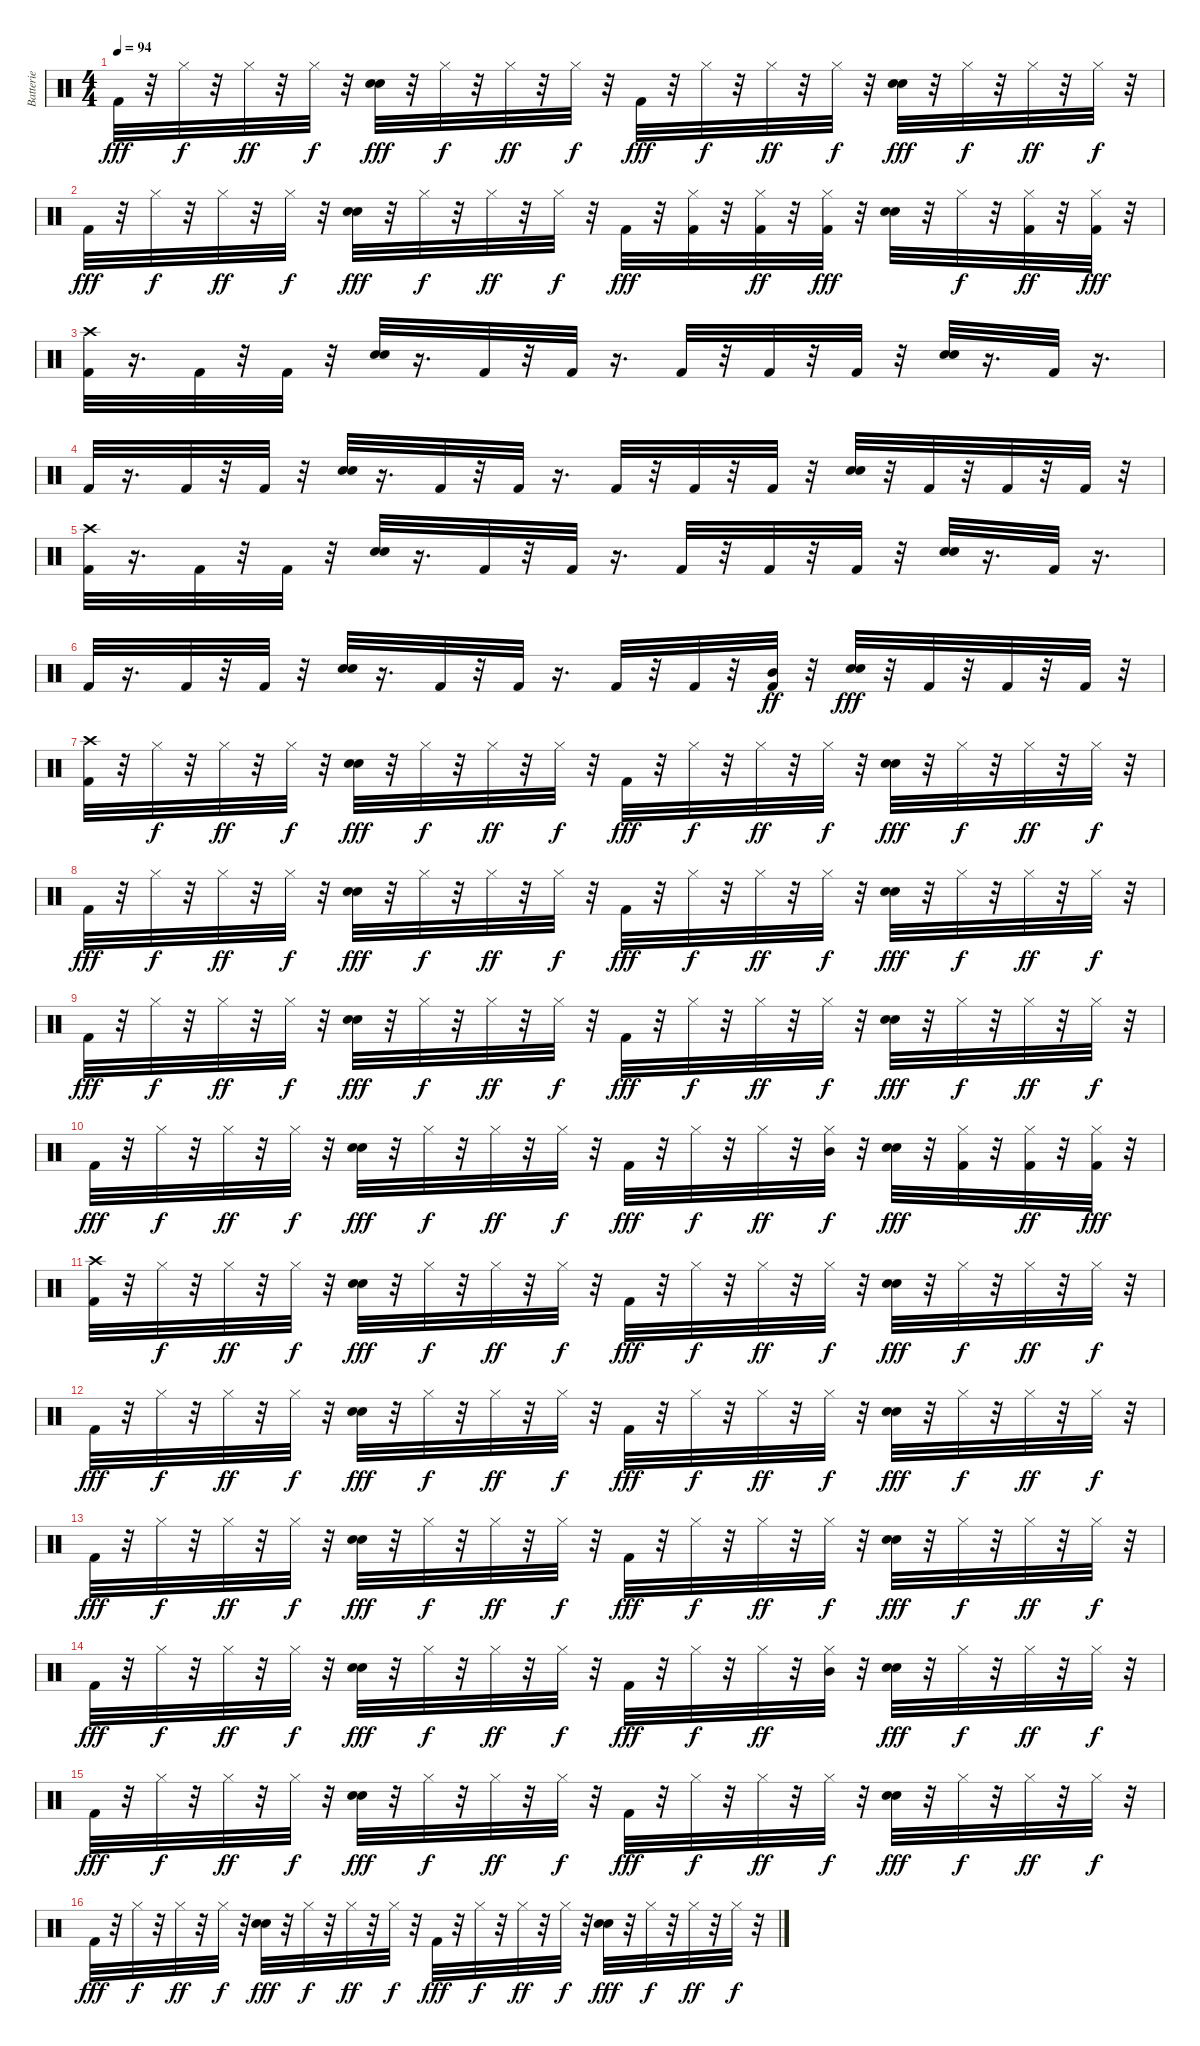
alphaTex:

\track ("Batterie" "Batterie") {instrument percussion}
\staff {score}
\articulation defaults
\ts (4 4)
\tempo 94
\clef neutral
\ks c "Kick (hit) 2".32{dy fff}
r.32 "Hi-Hat (closed)".32{dy f} r.32 "Hi-Hat (closed)".32{dy ff} r.32 "Hi-Hat (closed)".32{dy f} r.32 ("Electric Snare (hit)" "Hand Clap (hit)").32{dy fff} r.32 "Hi-Hat (closed)".32{dy f} r.32 "Hi-Hat (closed)".32{dy ff} r.32 "Hi-Hat (closed)".32{dy f} r.32 "Kick (hit) 2".32{dy fff} r.32 "Hi-Hat (closed)".32{dy f} r.32 "Hi-Hat (closed)".32{dy ff} r.32 "Hi-Hat (closed)".32{dy f} r.32 ("Electric Snare (hit)" "Hand Clap (hit)").32{dy fff} r.32 "Hi-Hat (closed)".32{dy f} r.32 "Hi-Hat (closed)".32{dy ff} r.32 "Hi-Hat (closed)".32{dy f} r.32 |
"Kick (hit) 2".32{dy fff} r.32 "Hi-Hat (closed)".32{dy f} r.32 "Hi-Hat (closed)".32{dy ff} r.32 "Hi-Hat (closed)".32{dy f} r.32 ("Electric Snare (hit)" "Hand Clap (hit)").32{dy fff} r.32 "Hi-Hat (closed)".32{dy f} r.32 "Hi-Hat (closed)".32{dy ff} r.32 "Hi-Hat (closed)".32{dy f} r.32 "Kick (hit) 2".32{dy fff} r.32 ("Kick (hit) 2" "Hi-Hat (closed)").32 r.32 ("Kick (hit) 2" "Hi-Hat (closed)").32{dy ff} r.32 ("Hi-Hat (closed)" "Kick (hit) 2").32{dy fff} r.32 ("Electric Snare (hit)" "Hand Clap (hit)").32 r.32 "Hi-Hat (closed)".32{dy f} r.32 ("Kick (hit) 2" "Hi-Hat (closed)").32{dy ff} r.32 ("Kick (hit) 2" "Hi-Hat (closed)").32{dy fff} r.32 |
("Kick (hit) 2" "Crash high (hit)").32 r.16{d} "Kick (hit) 2".32 r.32 "Kick (hit) 2".32 r.32 ("Electric Snare (hit)" "Hand Clap (hit)").32 r.16{d} "Kick (hit) 2".32 r.32 "Kick (hit) 2".32 r.16{d} "Kick (hit) 2".32 r.32 "Kick (hit) 2".32 r.32 "Kick (hit) 2".32 r.32 ("Electric Snare (hit)" "Hand Clap (hit)").32 r.16{d} "Kick (hit) 2".32 r.16{d} |
"Kick (hit) 2".32 r.16{d} "Kick (hit) 2".32 r.32 "Kick (hit) 2".32 r.32 ("Electric Snare (hit)" "Hand Clap (hit)").32 r.16{d} "Kick (hit) 2".32 r.32 "Kick (hit) 2".32 r.16{d} "Kick (hit) 2".32 r.32 "Kick (hit) 2".32 r.32 "Kick (hit) 2".32 r.32 ("Electric Snare (hit)" "Hand Clap (hit)").32 r.32 "Kick (hit) 2".32 r.32 "Kick (hit) 2".32 r.32 "Kick (hit) 2".32 r.32 |
("Kick (hit) 2" "Crash high (hit)").32 r.16{d} "Kick (hit) 2".32 r.32 "Kick (hit) 2".32 r.32 ("Electric Snare (hit)" "Hand Clap (hit)").32 r.16{d} "Kick (hit) 2".32 r.32 "Kick (hit) 2".32 r.16{d} "Kick (hit) 2".32 r.32 "Kick (hit) 2".32 r.32 "Kick (hit) 2".32 r.32 ("Electric Snare (hit)" "Hand Clap (hit)").32 r.16{d} "Kick (hit) 2".32 r.16{d} |
"Kick (hit) 2".32 r.16{d} "Kick (hit) 2".32 r.32 "Kick (hit) 2".32 r.32 ("Electric Snare (hit)" "Hand Clap (hit)").32 r.16{d} "Kick (hit) 2".32 r.32 "Kick (hit) 2".32 r.16{d} "Kick (hit) 2".32 r.32 "Kick (hit) 2".32 r.32 ("Kick (hit) 2" "Mid Tom (hit)").32{dy ff} r.32 ("Electric Snare (hit)" "Hand Clap (hit)").32{dy fff} r.32 "Kick (hit) 2".32 r.32 "Kick (hit) 2".32 r.32 "Kick (hit) 2".32 r.32 |
("Kick (hit) 2" "Crash high (hit)").32 r.32 "Hi-Hat (closed)".32{dy f} r.32 "Hi-Hat (closed)".32{dy ff} r.32 "Hi-Hat (closed)".32{dy f} r.32 ("Electric Snare (hit)" "Hand Clap (hit)").32{dy fff} r.32 "Hi-Hat (closed)".32{dy f} r.32 "Hi-Hat (closed)".32{dy ff} r.32 "Hi-Hat (closed)".32{dy f} r.32 "Kick (hit) 2".32{dy fff} r.32 "Hi-Hat (closed)".32{dy f} r.32 "Hi-Hat (closed)".32{dy ff} r.32 "Hi-Hat (closed)".32{dy f} r.32 ("Electric Snare (hit)" "Hand Clap (hit)").32{dy fff} r.32 "Hi-Hat (closed)".32{dy f} r.32 "Hi-Hat (closed)".32{dy ff} r.32 "Hi-Hat (closed)".32{dy f} r.32 |
"Kick (hit) 2".32{dy fff} r.32 "Hi-Hat (closed)".32{dy f} r.32 "Hi-Hat (closed)".32{dy ff} r.32 "Hi-Hat (closed)".32{dy f} r.32 ("Electric Snare (hit)" "Hand Clap (hit)").32{dy fff} r.32 "Hi-Hat (closed)".32{dy f} r.32 "Hi-Hat (closed)".32{dy ff} r.32 "Hi-Hat (closed)".32{dy f} r.32 "Kick (hit) 2".32{dy fff} r.32 "Hi-Hat (closed)".32{dy f} r.32 "Hi-Hat (closed)".32{dy ff} r.32 "Hi-Hat (closed)".32{dy f} r.32 ("Electric Snare (hit)" "Hand Clap (hit)").32{dy fff} r.32 "Hi-Hat (closed)".32{dy f} r.32 "Hi-Hat (closed)".32{dy ff} r.32 "Hi-Hat (closed)".32{dy f} r.32 |
"Kick (hit) 2".32{dy fff} r.32 "Hi-Hat (closed)".32{dy f} r.32 "Hi-Hat (closed)".32{dy ff} r.32 "Hi-Hat (closed)".32{dy f} r.32 ("Electric Snare (hit)" "Hand Clap (hit)").32{dy fff} r.32 "Hi-Hat (closed)".32{dy f} r.32 "Hi-Hat (closed)".32{dy ff} r.32 "Hi-Hat (closed)".32{dy f} r.32 "Kick (hit) 2".32{dy fff} r.32 "Hi-Hat (closed)".32{dy f} r.32 "Hi-Hat (closed)".32{dy ff} r.32 "Hi-Hat (closed)".32{dy f} r.32 ("Electric Snare (hit)" "Hand Clap (hit)").32{dy fff} r.32 "Hi-Hat (closed)".32{dy f} r.32 "Hi-Hat (closed)".32{dy ff} r.32 "Hi-Hat (closed)".32{dy f} r.32 |
"Kick (hit) 2".32{dy fff} r.32 "Hi-Hat (closed)".32{dy f} r.32 "Hi-Hat (closed)".32{dy ff} r.32 "Hi-Hat (closed)".32{dy f} r.32 ("Electric Snare (hit)" "Hand Clap (hit)").32{dy fff} r.32 "Hi-Hat (closed)".32{dy f} r.32 "Hi-Hat (closed)".32{dy ff} r.32 "Hi-Hat (closed)".32{dy f} r.32 "Kick (hit) 2".32{dy fff} r.32 "Hi-Hat (closed)".32{dy f} r.32 "Hi-Hat (closed)".32{dy ff} r.32 ("Hi-Hat (closed)" "Mid Tom (hit)").32{dy f} r.32 ("Electric Snare (hit)" "Hand Clap (hit)").32{dy fff} r.32 ("Kick (hit) 2" "Hi-Hat (closed)").32 r.32 ("Kick (hit) 2" "Hi-Hat (closed)").32{dy ff} r.32 ("Kick (hit) 2" "Hi-Hat (closed)").32{dy fff} r.32 |
("Kick (hit) 2" "Crash high (hit)").32 r.32 "Hi-Hat (closed)".32{dy f} r.32 "Hi-Hat (closed)".32{dy ff} r.32 "Hi-Hat (closed)".32{dy f} r.32 ("Electric Snare (hit)" "Hand Clap (hit)").32{dy fff} r.32 "Hi-Hat (closed)".32{dy f} r.32 "Hi-Hat (closed)".32{dy ff} r.32 "Hi-Hat (closed)".32{dy f} r.32 "Kick (hit) 2".32{dy fff} r.32 "Hi-Hat (closed)".32{dy f} r.32 "Hi-Hat (closed)".32{dy ff} r.32 "Hi-Hat (closed)".32{dy f} r.32 ("Electric Snare (hit)" "Hand Clap (hit)").32{dy fff} r.32 "Hi-Hat (closed)".32{dy f} r.32 "Hi-Hat (closed)".32{dy ff} r.32 "Hi-Hat (closed)".32{dy f} r.32 |
"Kick (hit) 2".32{dy fff} r.32 "Hi-Hat (closed)".32{dy f} r.32 "Hi-Hat (closed)".32{dy ff} r.32 "Hi-Hat (closed)".32{dy f} r.32 ("Electric Snare (hit)" "Hand Clap (hit)").32{dy fff} r.32 "Hi-Hat (closed)".32{dy f} r.32 "Hi-Hat (closed)".32{dy ff} r.32 "Hi-Hat (closed)".32{dy f} r.32 "Kick (hit) 2".32{dy fff} r.32 "Hi-Hat (closed)".32{dy f} r.32 "Hi-Hat (closed)".32{dy ff} r.32 "Hi-Hat (closed)".32{dy f} r.32 ("Electric Snare (hit)" "Hand Clap (hit)").32{dy fff} r.32 "Hi-Hat (closed)".32{dy f} r.32 "Hi-Hat (closed)".32{dy ff} r.32 "Hi-Hat (closed)".32{dy f} r.32 |
"Kick (hit) 2".32{dy fff} r.32 "Hi-Hat (closed)".32{dy f} r.32 "Hi-Hat (closed)".32{dy ff} r.32 "Hi-Hat (closed)".32{dy f} r.32 ("Electric Snare (hit)" "Hand Clap (hit)").32{dy fff} r.32 "Hi-Hat (closed)".32{dy f} r.32 "Hi-Hat (closed)".32{dy ff} r.32 "Hi-Hat (closed)".32{dy f} r.32 "Kick (hit) 2".32{dy fff} r.32 "Hi-Hat (closed)".32{dy f} r.32 "Hi-Hat (closed)".32{dy ff} r.32 "Hi-Hat (closed)".32{dy f} r.32 ("Electric Snare (hit)" "Hand Clap (hit)").32{dy fff} r.32 "Hi-Hat (closed)".32{dy f} r.32 "Hi-Hat (closed)".32{dy ff} r.32 "Hi-Hat (closed)".32{dy f} r.32 |
"Kick (hit) 2".32{dy fff} r.32 "Hi-Hat (closed)".32{dy f} r.32 "Hi-Hat (closed)".32{dy ff} r.32 "Hi-Hat (closed)".32{dy f} r.32 ("Electric Snare (hit)" "Hand Clap (hit)").32{dy fff} r.32 "Hi-Hat (closed)".32{dy f} r.32 "Hi-Hat (closed)".32{dy ff} r.32 "Hi-Hat (closed)".32{dy f} r.32 "Kick (hit) 2".32{dy fff} r.32 "Hi-Hat (closed)".32{dy f} r.32 "Hi-Hat (closed)".32{dy ff} r.32 ("Hi-Hat (closed)" "Mid Tom (hit)").32 r.32 ("Electric Snare (hit)" "Hand Clap (hit)").32{dy fff} r.32 "Hi-Hat (closed)".32{dy f} r.32 "Hi-Hat (closed)".32{dy ff} r.32 "Hi-Hat (closed)".32{dy f} r.32 |
"Kick (hit) 2".32{dy fff} r.32 "Hi-Hat (closed)".32{dy f} r.32 "Hi-Hat (closed)".32{dy ff} r.32 "Hi-Hat (closed)".32{dy f} r.32 ("Electric Snare (hit)" "Hand Clap (hit)").32{dy fff} r.32 "Hi-Hat (closed)".32{dy f} r.32 "Hi-Hat (closed)".32{dy ff} r.32 "Hi-Hat (closed)".32{dy f} r.32 "Kick (hit) 2".32{dy fff} r.32 "Hi-Hat (closed)".32{dy f} r.32 "Hi-Hat (closed)".32{dy ff} r.32 "Hi-Hat (closed)".32{dy f} r.32 ("Electric Snare (hit)" "Hand Clap (hit)").32{dy fff} r.32 "Hi-Hat (closed)".32{dy f} r.32 "Hi-Hat (closed)".32{dy ff} r.32 "Hi-Hat (closed)".32{dy f} r.32 |
"Kick (hit) 2".32{dy fff} r.32 "Hi-Hat (closed)".32{dy f} r.32 "Hi-Hat (closed)".32{dy ff} r.32 "Hi-Hat (closed)".32{dy f} r.32 ("Electric Snare (hit)" "Hand Clap (hit)").32{dy fff} r.32 "Hi-Hat (closed)".32{dy f} r.32 "Hi-Hat (closed)".32{dy ff} r.32 "Hi-Hat (closed)".32{dy f} r.32 "Kick (hit) 2".32{dy fff} r.32 "Hi-Hat (closed)".32{dy f} r.32 "Hi-Hat (closed)".32{dy ff} r.32 "Hi-Hat (closed)".32{dy f} r.32 ("Electric Snare (hit)" "Hand Clap (hit)").32{dy fff} r.32 "Hi-Hat (closed)".32{dy f} r.32 "Hi-Hat (closed)".32{dy ff} r.32 "Hi-Hat (closed)".32{dy f} r.32
